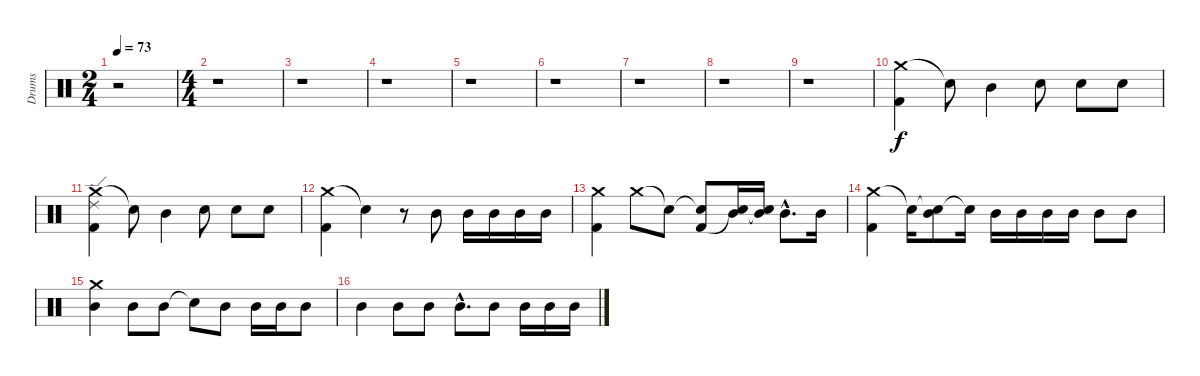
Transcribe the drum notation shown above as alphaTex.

\track ("Drums" "Drums") {instrument percussion}
\staff {score}
\articulation defaults
\ts (2 4)
\tempo 73
\clef neutral
\ks c
r.2{dy f} |
\ts (4 4)
r.1 |
r.1 |
r.1 |
r.1 |
r.1 |
r.1 |
r.1 |
r.1 |
("Crash medium (hit)" "Kick (hit) 2").4 "Snare (hit)"{t}.8 "Mid Tom (hit)".4 "Snare (hit) 2".8 "Snare (hit) 2".8 "Snare (hit) 2".8 |
("Crash medium (hit)" "Ride (edge) 2" "Kick (hit) 2").4 "Snare (hit)"{t}.8 "Mid Tom (hit)".4 "Snare (hit) 2".8 "Snare (hit) 2".8 "Snare (hit) 2".8 |
("Crash medium (hit)" "Kick (hit) 2").4 "Snare (hit)"{t}.4 r.8 "Mid Tom (hit)".8 "Mid Tom (hit)".16 "Mid Tom (hit)".16 "Mid Tom (hit)".16 "Mid Tom (hit)".16 |
("Crash medium (hit)" "Kick (hit) 2").4 "Crash medium (hit)".8 "Snare (hit)"{t}.8 ("Snare (hit)"{t} "Kick (hit) 2").8 ("Mid Tom (hit)" "Snare (hit)"{t}).16 ("Mid Tom (hit)" "Snare (hit)"{t}).16 "Mid Tom (hit)"{hac}.8{d} "Mid Tom (hit)".16 |
("Crash medium (hit)" "Kick (hit) 2").4 "Snare (hit)"{t}.16 ("Snare (hit)"{t} "Mid Tom (hit)").8 "Snare (hit)"{t}.16 "Mid Tom (hit)".16 "Mid Tom (hit)".16 "Mid Tom (hit)".16 "Mid Tom (hit)".16 "Mid Tom (hit)".8 "Mid Tom (hit)".8 |
("Crash medium (hit)" "Mid Tom (hit)").4 "Mid Tom (hit)".8 "Mid Tom (hit)".8 "Snare (hit)"{t}.8 "Mid Tom (hit)".8 "Mid Tom (hit)".16 "Mid Tom (hit)".16 "Mid Tom (hit)".8 |
"Mid Tom (hit)".4 "Mid Tom (hit)".8 "Mid Tom (hit)".8 "Mid Tom (hit)"{hac}.8{d} "Mid Tom (hit)".8 "Mid Tom (hit)".16 "Mid Tom (hit)".16 "Mid Tom (hit)".16
